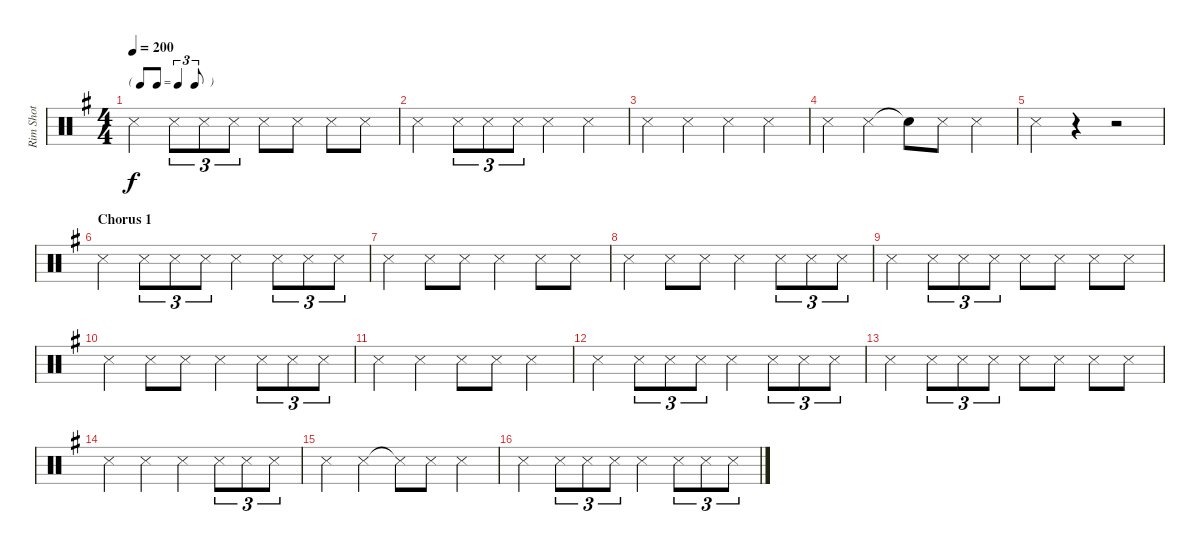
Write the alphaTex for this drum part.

\track ("Rim Shot" "Rim Shot") {instrument percussion}
\staff {score}
\articulation defaults
\ts (4 4)
\tf triplet8th
\tempo 200
\clef neutral
\ks g "Snare (side stick) 3".4{dy f} "Snare (side stick) 3".8{tu (3 2)} "Snare (side stick) 3".8{tu (3 2)} "Snare (side stick) 3".8{tu (3 2)} "Snare (side stick) 3".8 "Snare (side stick) 3".8 "Snare (side stick) 3".8 "Snare (side stick) 3".8
|
"Snare (side stick) 3".4 "Snare (side stick) 3".8{tu (3 2)} "Snare (side stick) 3".8{tu (3 2)} "Snare (side stick) 3".8{tu (3 2)} "Snare (side stick) 3".4 "Snare (side stick) 3".4 |
"Snare (side stick) 3".4 "Snare (side stick) 3".4 "Snare (side stick) 3".4 "Snare (side stick) 3".4 |
"Snare (side stick) 3".4 "Snare (side stick) 3".4 "Snare (hit)"{t}.8 "Snare (side stick) 3".8 "Snare (side stick) 3".4 |
"Snare (side stick) 3".4 r.4 r.2 |
\section ("" "Chorus 1")
"Snare (side stick) 3".4 "Snare (side stick) 3".8{tu (3 2)} "Snare (side stick) 3".8{tu (3 2)} "Snare (side stick) 3".8{tu (3 2)} "Snare (side stick) 3".4 "Snare (side stick) 3".8{tu (3 2)} "Snare (side stick) 3".8{tu (3 2)} "Snare (side stick) 3".8{tu (3 2)} |
"Snare (side stick) 3".4 "Snare (side stick) 3".8 "Snare (side stick) 3".8 "Snare (side stick) 3".4 "Snare (side stick) 3".8 "Snare (side stick) 3".8 |
"Snare (side stick) 3".4 "Snare (side stick) 3".8 "Snare (side stick) 3".8 "Snare (side stick) 3".4 "Snare (side stick) 3".8{tu (3 2)} "Snare (side stick) 3".8{tu (3 2)} "Snare (side stick) 3".8{tu (3 2)} |
"Snare (side stick) 3".4 "Snare (side stick) 3".8{tu (3 2)} "Snare (side stick) 3".8{tu (3 2)} "Snare (side stick) 3".8{tu (3 2)} "Snare (side stick) 3".8 "Snare (side stick) 3".8 "Snare (side stick) 3".8 "Snare (side stick) 3".8 |
"Snare (side stick) 3".4 "Snare (side stick) 3".8 "Snare (side stick) 3".8 "Snare (side stick) 3".4 "Snare (side stick) 3".8{tu (3 2)} "Snare (side stick) 3".8{tu (3 2)} "Snare (side stick) 3".8{tu (3 2)} |
"Snare (side stick) 3".4 "Snare (side stick) 3".4 "Snare (side stick) 3".8 "Snare (side stick) 3".8 "Snare (side stick) 3".4 |
"Snare (side stick) 3".4 "Snare (side stick) 3".8{tu (3 2)} "Snare (side stick) 3".8{tu (3 2)} "Snare (side stick) 3".8{tu (3 2)} "Snare (side stick) 3".4 "Snare (side stick) 3".8{tu (3 2)} "Snare (side stick) 3".8{tu (3 2)} "Snare (side stick) 3".8{tu (3 2)} |
"Snare (side stick) 3".4 "Snare (side stick) 3".8{tu (3 2)} "Snare (side stick) 3".8{tu (3 2)} "Snare (side stick) 3".8{tu (3 2)} "Snare (side stick) 3".8 "Snare (side stick) 3".8 "Snare (side stick) 3".8 "Snare (side stick) 3".8 |
"Snare (side stick) 3".4 "Snare (side stick) 3".4 "Snare (side stick) 3".4 "Snare (side stick) 3".8{tu (3 2)} "Snare (side stick) 3".8{tu (3 2)} "Snare (side stick) 3".8{tu (3 2)} |
"Snare (side stick) 3".4 "Snare (side stick) 3".4 "Snare (side stick) 3"{t}.8 "Snare (side stick) 3".8 "Snare (side stick) 3".4 |
"Snare (side stick) 3".4 "Snare (side stick) 3".8{tu (3 2)} "Snare (side stick) 3".8{tu (3 2)} "Snare (side stick) 3".8{tu (3 2)} "Snare (side stick) 3".4 "Snare (side stick) 3".8{tu (3 2)} "Snare (side stick) 3".8{tu (3 2)} "Snare (side stick) 3".8{tu (3 2)}
